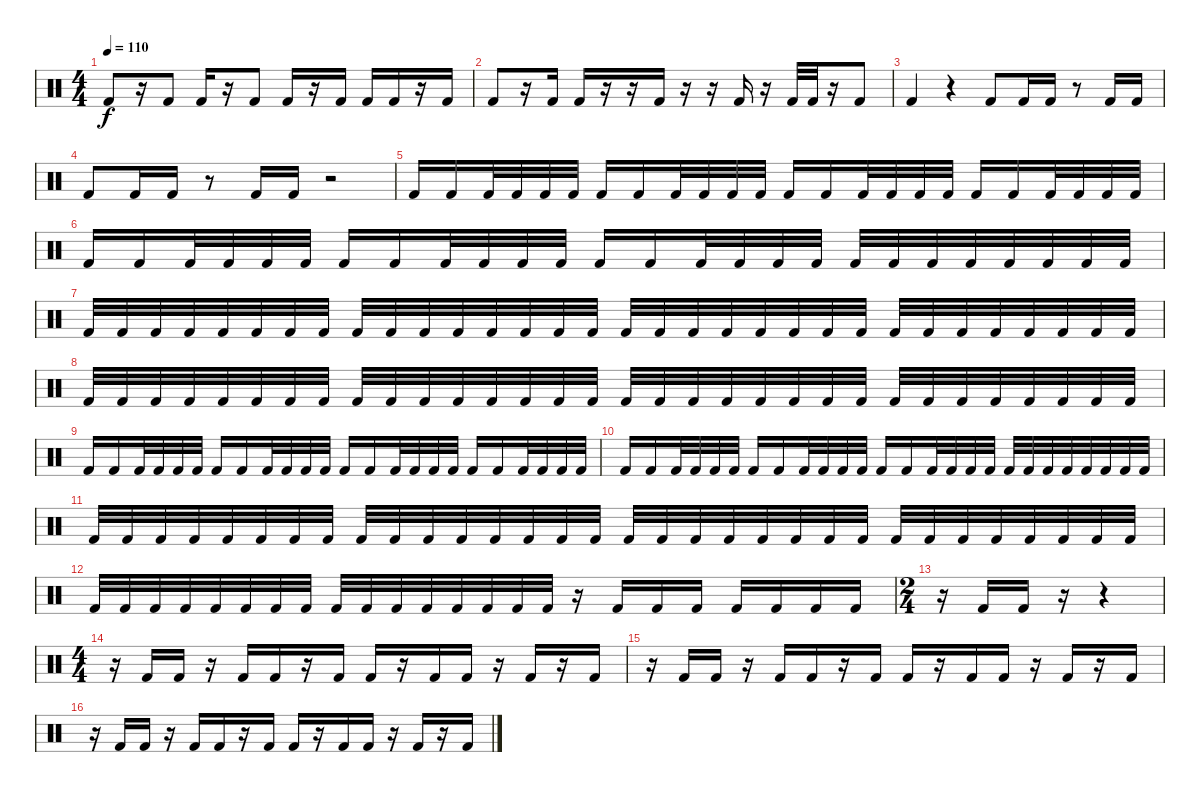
\track "" {instrument percussion}
\staff {score}
\articulation defaults
\ts (4 4)
\tempo 110
\clef neutral
\ks c "Kick (hit) 2".8{dy f}
r.16 "Kick (hit) 2".8 "Kick (hit) 2".16 r.16 "Kick (hit) 2".8 "Kick (hit) 2".16 r.16 "Kick (hit) 2".16 "Kick (hit) 2".16 "Kick (hit) 2".16 r.16 "Kick (hit) 2".16 |
"Kick (hit) 2".8 r.16 "Kick (hit) 2".16 "Kick (hit) 2".16 r.16 r.16 "Kick (hit) 2".16 r.16 r.16 "Kick (hit) 2".16 r.16 "Kick (hit) 2".32 "Kick (hit) 2".32 r.16 "Kick (hit) 2".8 |
"Kick (hit) 2".4 r.4 "Kick (hit) 2".8 "Kick (hit) 2".16 "Kick (hit) 2".16 r.8 "Kick (hit) 2".16 "Kick (hit) 2".16 |
"Kick (hit) 2".8 "Kick (hit) 2".16 "Kick (hit) 2".16 r.8 "Kick (hit) 2".16 "Kick (hit) 2".16 r.2 |
"Kick (hit) 2".16 "Kick (hit) 2".16 "Kick (hit) 2".32 "Kick (hit) 2".32 "Kick (hit) 2".32 "Kick (hit) 2".32 "Kick (hit) 2".16 "Kick (hit) 2".16 "Kick (hit) 2".32 "Kick (hit) 2".32 "Kick (hit) 2".32 "Kick (hit) 2".32 "Kick (hit) 2".16 "Kick (hit) 2".16 "Kick (hit) 2".32 "Kick (hit) 2".32 "Kick (hit) 2".32 "Kick (hit) 2".32 "Kick (hit) 2".16 "Kick (hit) 2".16 "Kick (hit) 2".32 "Kick (hit) 2".32 "Kick (hit) 2".32 "Kick (hit) 2".32 |
"Kick (hit) 2".16 "Kick (hit) 2".16 "Kick (hit) 2".32 "Kick (hit) 2".32 "Kick (hit) 2".32 "Kick (hit) 2".32 "Kick (hit) 2".16 "Kick (hit) 2".16 "Kick (hit) 2".32 "Kick (hit) 2".32 "Kick (hit) 2".32 "Kick (hit) 2".32 "Kick (hit) 2".16 "Kick (hit) 2".16 "Kick (hit) 2".32 "Kick (hit) 2".32 "Kick (hit) 2".32 "Kick (hit) 2".32 "Kick (hit) 2".32 "Kick (hit) 2".32 "Kick (hit) 2".32 "Kick (hit) 2".32 "Kick (hit) 2".32 "Kick (hit) 2".32 "Kick (hit) 2".32 "Kick (hit) 2".32 |
"Kick (hit) 2".32 "Kick (hit) 2".32 "Kick (hit) 2".32 "Kick (hit) 2".32 "Kick (hit) 2".32 "Kick (hit) 2".32 "Kick (hit) 2".32 "Kick (hit) 2".32 "Kick (hit) 2".32 "Kick (hit) 2".32 "Kick (hit) 2".32 "Kick (hit) 2".32 "Kick (hit) 2".32 "Kick (hit) 2".32 "Kick (hit) 2".32 "Kick (hit) 2".32 "Kick (hit) 2".32 "Kick (hit) 2".32 "Kick (hit) 2".32 "Kick (hit) 2".32 "Kick (hit) 2".32 "Kick (hit) 2".32 "Kick (hit) 2".32 "Kick (hit) 2".32 "Kick (hit) 2".32 "Kick (hit) 2".32 "Kick (hit) 2".32 "Kick (hit) 2".32 "Kick (hit) 2".32 "Kick (hit) 2".32 "Kick (hit) 2".32 "Kick (hit) 2".32 |
"Kick (hit) 2".32 "Kick (hit) 2".32 "Kick (hit) 2".32 "Kick (hit) 2".32 "Kick (hit) 2".32 "Kick (hit) 2".32 "Kick (hit) 2".32 "Kick (hit) 2".32 "Kick (hit) 2".32 "Kick (hit) 2".32 "Kick (hit) 2".32 "Kick (hit) 2".32 "Kick (hit) 2".32 "Kick (hit) 2".32 "Kick (hit) 2".32 "Kick (hit) 2".32 "Kick (hit) 2".32 "Kick (hit) 2".32 "Kick (hit) 2".32 "Kick (hit) 2".32 "Kick (hit) 2".32 "Kick (hit) 2".32 "Kick (hit) 2".32 "Kick (hit) 2".32 "Kick (hit) 2".32 "Kick (hit) 2".32 "Kick (hit) 2".32 "Kick (hit) 2".32 "Kick (hit) 2".32 "Kick (hit) 2".32 "Kick (hit) 2".32 "Kick (hit) 2".32 |
"Kick (hit) 2".16 "Kick (hit) 2".16 "Kick (hit) 2".32 "Kick (hit) 2".32 "Kick (hit) 2".32 "Kick (hit) 2".32 "Kick (hit) 2".16 "Kick (hit) 2".16 "Kick (hit) 2".32 "Kick (hit) 2".32 "Kick (hit) 2".32 "Kick (hit) 2".32 "Kick (hit) 2".16 "Kick (hit) 2".16 "Kick (hit) 2".32 "Kick (hit) 2".32 "Kick (hit) 2".32 "Kick (hit) 2".32 "Kick (hit) 2".16 "Kick (hit) 2".16 "Kick (hit) 2".32 "Kick (hit) 2".32 "Kick (hit) 2".32 "Kick (hit) 2".32 |
"Kick (hit) 2".16 "Kick (hit) 2".16 "Kick (hit) 2".32 "Kick (hit) 2".32 "Kick (hit) 2".32 "Kick (hit) 2".32 "Kick (hit) 2".16 "Kick (hit) 2".16 "Kick (hit) 2".32 "Kick (hit) 2".32 "Kick (hit) 2".32 "Kick (hit) 2".32 "Kick (hit) 2".16 "Kick (hit) 2".16 "Kick (hit) 2".32 "Kick (hit) 2".32 "Kick (hit) 2".32 "Kick (hit) 2".32 "Kick (hit) 2".32 "Kick (hit) 2".32 "Kick (hit) 2".32 "Kick (hit) 2".32 "Kick (hit) 2".32 "Kick (hit) 2".32 "Kick (hit) 2".32 "Kick (hit) 2".32 |
"Kick (hit) 2".32 "Kick (hit) 2".32 "Kick (hit) 2".32 "Kick (hit) 2".32 "Kick (hit) 2".32 "Kick (hit) 2".32 "Kick (hit) 2".32 "Kick (hit) 2".32 "Kick (hit) 2".32 "Kick (hit) 2".32 "Kick (hit) 2".32 "Kick (hit) 2".32 "Kick (hit) 2".32 "Kick (hit) 2".32 "Kick (hit) 2".32 "Kick (hit) 2".32 "Kick (hit) 2".32 "Kick (hit) 2".32 "Kick (hit) 2".32 "Kick (hit) 2".32 "Kick (hit) 2".32 "Kick (hit) 2".32 "Kick (hit) 2".32 "Kick (hit) 2".32 "Kick (hit) 2".32 "Kick (hit) 2".32 "Kick (hit) 2".32 "Kick (hit) 2".32 "Kick (hit) 2".32 "Kick (hit) 2".32 "Kick (hit) 2".32 "Kick (hit) 2".32 |
"Kick (hit) 2".32 "Kick (hit) 2".32 "Kick (hit) 2".32 "Kick (hit) 2".32 "Kick (hit) 2".32 "Kick (hit) 2".32 "Kick (hit) 2".32 "Kick (hit) 2".32 "Kick (hit) 2".32 "Kick (hit) 2".32 "Kick (hit) 2".32 "Kick (hit) 2".32 "Kick (hit) 2".32 "Kick (hit) 2".32 "Kick (hit) 2".32 "Kick (hit) 2".32 r.16 "Kick (hit) 2".16 "Kick (hit) 2".16 "Kick (hit) 2".16 "Kick (hit) 2".16 "Kick (hit) 2".16 "Kick (hit) 2".16 "Kick (hit) 2".16 |
\ts (2 4)
r.16 "Kick (hit) 2".16 "Kick (hit) 2".16 r.16 r.4 |
\ts (4 4)
r.16 "Kick (hit) 2".16 "Kick (hit) 2".16 r.16 "Kick (hit) 2".16 "Kick (hit) 2".16 r.16 "Kick (hit) 2".16 "Kick (hit) 2".16 r.16 "Kick (hit) 2".16 "Kick (hit) 2".16 r.16 "Kick (hit) 2".16 r.16 "Kick (hit) 2".16 |
r.16 "Kick (hit) 2".16 "Kick (hit) 2".16 r.16 "Kick (hit) 2".16 "Kick (hit) 2".16 r.16 "Kick (hit) 2".16 "Kick (hit) 2".16 r.16 "Kick (hit) 2".16 "Kick (hit) 2".16 r.16 "Kick (hit) 2".16 r.16 "Kick (hit) 2".16 |
r.16 "Kick (hit) 2".16 "Kick (hit) 2".16 r.16 "Kick (hit) 2".16 "Kick (hit) 2".16 r.16 "Kick (hit) 2".16 "Kick (hit) 2".16 r.16 "Kick (hit) 2".16 "Kick (hit) 2".16 r.16 "Kick (hit) 2".16 r.16 "Kick (hit) 2".16
